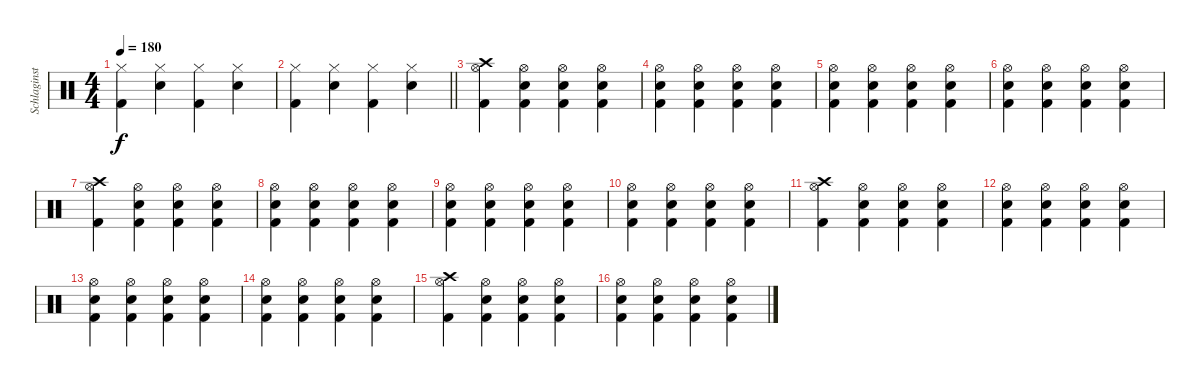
\track ("Schlaginstrumente - Auswahl" "Schlaginst") {instrument percussion}
\staff {score}
\articulation defaults
\ts (4 4)
\tempo 180
\clef neutral
\ks c
("Hi-Hat (closed)" "Kick (hit) 2").4{dy f} ("Hi-Hat (closed)" "Electric Snare (hit)").4 ("Hi-Hat (closed)" "Kick (hit) 2").4 ("Hi-Hat (closed)" "Electric Snare (hit)").4 |
\barLineRight lightlight
("Hi-Hat (closed)" "Kick (hit) 2").4 ("Hi-Hat (closed)" "Electric Snare (hit)").4 ("Hi-Hat (closed)" "Kick (hit) 2").4 ("Hi-Hat (closed)" "Electric Snare (hit)").4 |
("Crash high (hit)" "Hi-Hat (open)" "Kick (hit) 2").4 ("Hi-Hat (open)" "Electric Snare (hit)" "Kick (hit) 2").4 ("Hi-Hat (open)" "Electric Snare (hit)" "Kick (hit) 2").4 ("Hi-Hat (open)" "Electric Snare (hit)" "Kick (hit) 2").4 |
("Hi-Hat (open)" "Electric Snare (hit)" "Kick (hit) 2").4 ("Hi-Hat (open)" "Electric Snare (hit)" "Kick (hit) 2").4 ("Hi-Hat (open)" "Electric Snare (hit)" "Kick (hit) 2").4 ("Hi-Hat (open)" "Electric Snare (hit)" "Kick (hit) 2").4 |
("Hi-Hat (open)" "Electric Snare (hit)" "Kick (hit) 2").4 ("Hi-Hat (open)" "Electric Snare (hit)" "Kick (hit) 2").4 ("Hi-Hat (open)" "Electric Snare (hit)" "Kick (hit) 2").4 ("Hi-Hat (open)" "Electric Snare (hit)" "Kick (hit) 2").4 |
("Hi-Hat (open)" "Electric Snare (hit)" "Kick (hit) 2").4 ("Hi-Hat (open)" "Electric Snare (hit)" "Kick (hit) 2").4 ("Hi-Hat (open)" "Electric Snare (hit)" "Kick (hit) 2").4 ("Hi-Hat (open)" "Electric Snare (hit)" "Kick (hit) 2").4 |
("Crash high (hit)" "Hi-Hat (open)" "Kick (hit) 2").4 ("Hi-Hat (open)" "Electric Snare (hit)" "Kick (hit) 2").4 ("Hi-Hat (open)" "Electric Snare (hit)" "Kick (hit) 2").4 ("Hi-Hat (open)" "Electric Snare (hit)" "Kick (hit) 2").4 |
("Hi-Hat (open)" "Electric Snare (hit)" "Kick (hit) 2").4 ("Hi-Hat (open)" "Electric Snare (hit)" "Kick (hit) 2").4 ("Hi-Hat (open)" "Electric Snare (hit)" "Kick (hit) 2").4 ("Hi-Hat (open)" "Electric Snare (hit)" "Kick (hit) 2").4 |
("Hi-Hat (open)" "Electric Snare (hit)" "Kick (hit) 2").4 ("Hi-Hat (open)" "Electric Snare (hit)" "Kick (hit) 2").4 ("Hi-Hat (open)" "Electric Snare (hit)" "Kick (hit) 2").4 ("Hi-Hat (open)" "Electric Snare (hit)" "Kick (hit) 2").4 |
("Hi-Hat (open)" "Electric Snare (hit)" "Kick (hit) 2").4 ("Hi-Hat (open)" "Electric Snare (hit)" "Kick (hit) 2").4 ("Hi-Hat (open)" "Electric Snare (hit)" "Kick (hit) 2").4 ("Hi-Hat (open)" "Electric Snare (hit)" "Kick (hit) 2").4 |
("Crash high (hit)" "Hi-Hat (open)" "Kick (hit) 2").4 ("Hi-Hat (open)" "Electric Snare (hit)" "Kick (hit) 2").4 ("Hi-Hat (open)" "Electric Snare (hit)" "Kick (hit) 2").4 ("Hi-Hat (open)" "Electric Snare (hit)" "Kick (hit) 2").4 |
("Hi-Hat (open)" "Electric Snare (hit)" "Kick (hit) 2").4 ("Hi-Hat (open)" "Electric Snare (hit)" "Kick (hit) 2").4 ("Hi-Hat (open)" "Electric Snare (hit)" "Kick (hit) 2").4 ("Hi-Hat (open)" "Electric Snare (hit)" "Kick (hit) 2").4 |
("Hi-Hat (open)" "Electric Snare (hit)" "Kick (hit) 2").4 ("Hi-Hat (open)" "Electric Snare (hit)" "Kick (hit) 2").4 ("Hi-Hat (open)" "Electric Snare (hit)" "Kick (hit) 2").4 ("Hi-Hat (open)" "Electric Snare (hit)" "Kick (hit) 2").4 |
("Hi-Hat (open)" "Electric Snare (hit)" "Kick (hit) 2").4 ("Hi-Hat (open)" "Electric Snare (hit)" "Kick (hit) 2").4 ("Hi-Hat (open)" "Electric Snare (hit)" "Kick (hit) 2").4 ("Hi-Hat (open)" "Electric Snare (hit)" "Kick (hit) 2").4 |
("Crash high (hit)" "Hi-Hat (open)" "Kick (hit) 2").4 ("Hi-Hat (open)" "Electric Snare (hit)" "Kick (hit) 2").4 ("Hi-Hat (open)" "Electric Snare (hit)" "Kick (hit) 2").4 ("Hi-Hat (open)" "Electric Snare (hit)" "Kick (hit) 2").4 |
("Hi-Hat (open)" "Electric Snare (hit)" "Kick (hit) 2").4 ("Hi-Hat (open)" "Electric Snare (hit)" "Kick (hit) 2").4 ("Hi-Hat (open)" "Electric Snare (hit)" "Kick (hit) 2").4 ("Hi-Hat (open)" "Electric Snare (hit)" "Kick (hit) 2").4
